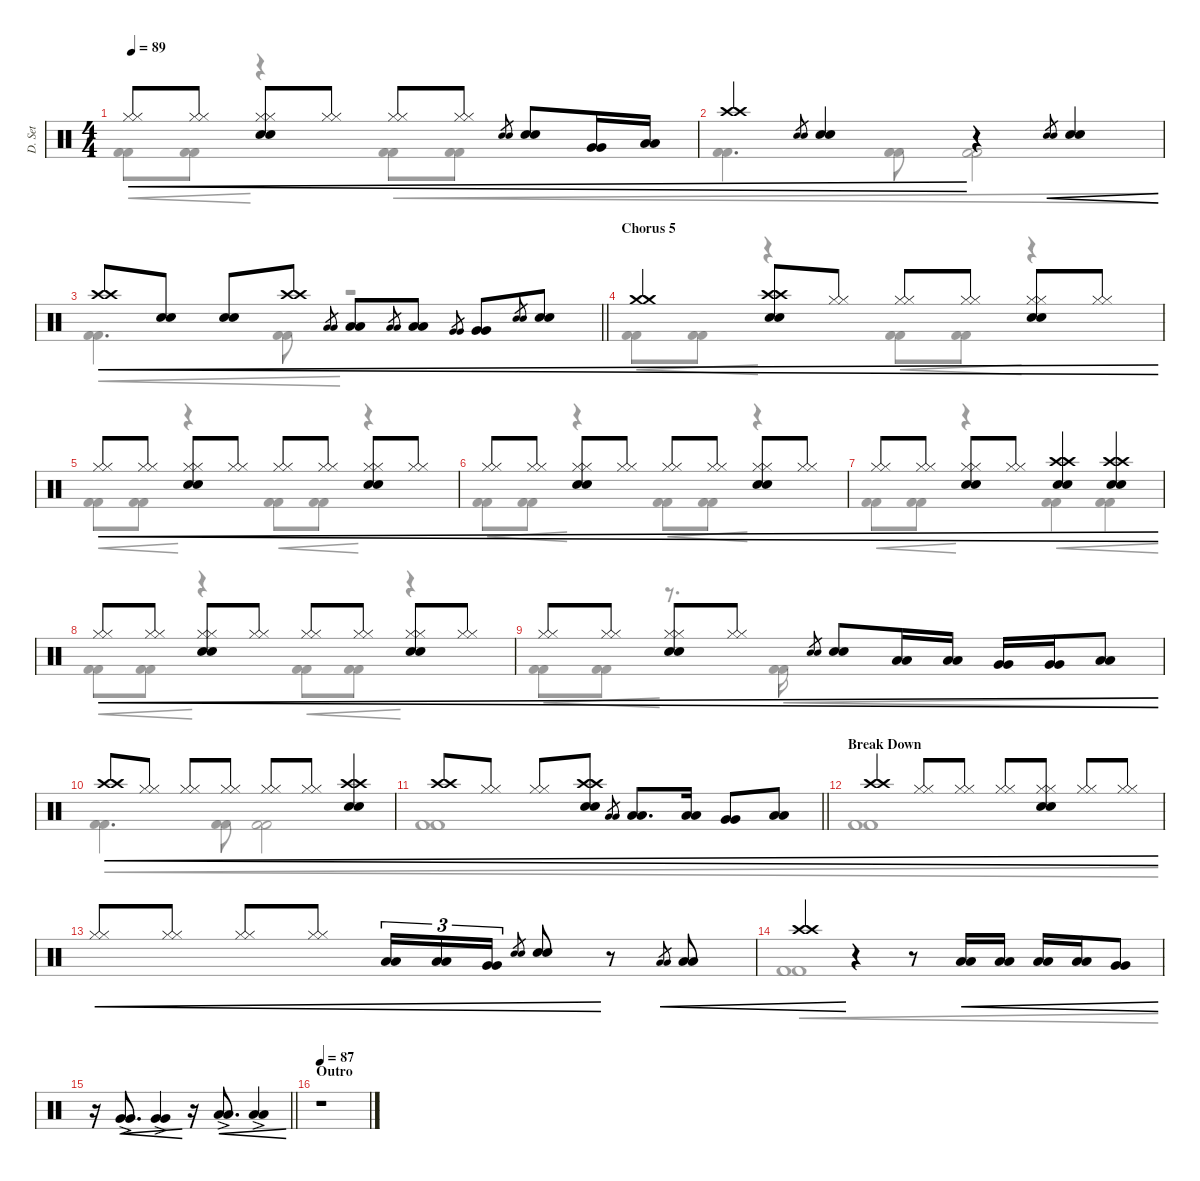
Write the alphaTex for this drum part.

\defaultSystemsLayout 4
\hideDynamics
\bracketExtendMode groupsimilarinstruments
\otherSystemsTrackNameOrientation horizontal
\track ("Drumset" "D. Set") {instrument percussion}
\staff {score}
\articulation defaults
\voice
\ts (4 4)
\tempo 89
\clef neutral
\ks c
("Hi-Hat (closed)" "Hi-Hat (closed)").8{cre dy fff beam Up} ("Hi-Hat (closed)" "Hi-Hat (closed)").8{cre beam Up} ("Electric Snare (hit)" "Electric Snare (hit)" "Hi-Hat (closed)" "Hi-Hat (closed)").8{cre beam Up} ("Hi-Hat (closed)" "Hi-Hat (closed)").8{cre beam Up} ("Hi-Hat (closed)" "Hi-Hat (closed)").8{cre beam Up} ("Hi-Hat (closed)" "Hi-Hat (closed)").8{cre beam Up} ("Electric Snare (hit)" "Electric Snare (hit)").8{gr cre beam Up} ("Electric Snare (hit)" "Electric Snare (hit)").8{cre beam Up} ("Very Low Tom (hit)" "Very Low Tom (hit)").16{cre beam Up} ("Low Tom (hit)" "Low Tom (hit)").16{cre beam Up} |
("Crash high (hit)" "Crash high (hit)").4{cre beam Up} ("Electric Snare (hit)" "Electric Snare (hit)").8{gr cre beam Up} ("Electric Snare (hit)" "Electric Snare (hit)").4{cre beam Up} r.4 ("Electric Snare (hit)" "Electric Snare (hit)").8{gr cre beam Up} ("Electric Snare (hit)" "Electric Snare (hit)").4{cre beam Up} |
\barLineRight lightlight
("Crash high (hit)" "Crash high (hit)").8{cre beam Up} ("Electric Snare (hit)" "Electric Snare (hit)").8{cre beam Up} ("Electric Snare (hit)" "Electric Snare (hit)").8{cre beam Up} ("Crash high (hit)" "Crash high (hit)").8{cre beam Up} ("Low Tom (hit)" "Low Tom (hit)").8{gr cre beam Up} ("Low Tom (hit)" "Low Tom (hit)").8{cre beam Up} ("Low Tom (hit)" "Low Tom (hit)").8{gr cre beam Up} ("Low Tom (hit)" "Low Tom (hit)").8{cre beam Up} ("Very Low Tom (hit)" "Very Low Tom (hit)").8{gr cre beam Up} ("Very Low Tom (hit)" "Very Low Tom (hit)").8{cre beam Up} ("Electric Snare (hit)" "Electric Snare (hit)").8{gr cre beam Up} ("Electric Snare (hit)" "Electric Snare (hit)").8{cre beam Up} |
\section ("" "Chorus 5")
("Crash medium (hit)" "Crash medium (hit)").4{cre beam Up} ("Electric Snare (hit)" "Electric Snare (hit)" "Crash high (hit)" "Crash high (hit)").8{cre beam Up} ("Hi-Hat (closed)" "Hi-Hat (closed)").8{cre beam Up} ("Hi-Hat (closed)" "Hi-Hat (closed)").8{cre beam Up} ("Hi-Hat (closed)" "Hi-Hat (closed)").8{cre beam Up} ("Electric Snare (hit)" "Electric Snare (hit)" "Hi-Hat (closed)" "Hi-Hat (closed)").8{cre beam Up} ("Hi-Hat (closed)" "Hi-Hat (closed)").8{cre beam Up} |
("Hi-Hat (closed)" "Hi-Hat (closed)").8{cre beam Up} ("Hi-Hat (closed)" "Hi-Hat (closed)").8{cre beam Up} ("Electric Snare (hit)" "Electric Snare (hit)" "Hi-Hat (closed)" "Hi-Hat (closed)").8{cre beam Up} ("Hi-Hat (closed)" "Hi-Hat (closed)").8{cre beam Up} ("Hi-Hat (closed)" "Hi-Hat (closed)").8{cre beam Up} ("Hi-Hat (closed)" "Hi-Hat (closed)").8{cre beam Up} ("Electric Snare (hit)" "Electric Snare (hit)" "Hi-Hat (closed)" "Hi-Hat (closed)").8{cre beam Up} ("Hi-Hat (closed)" "Hi-Hat (closed)").8{cre beam Up} |
("Hi-Hat (closed)" "Hi-Hat (closed)").8{cre beam Up} ("Hi-Hat (closed)" "Hi-Hat (closed)").8{cre beam Up} ("Electric Snare (hit)" "Electric Snare (hit)" "Hi-Hat (closed)" "Hi-Hat (closed)").8{cre beam Up} ("Hi-Hat (closed)" "Hi-Hat (closed)").8{cre beam Up} ("Hi-Hat (closed)" "Hi-Hat (closed)").8{cre beam Up} ("Hi-Hat (closed)" "Hi-Hat (closed)").8{cre beam Up} ("Electric Snare (hit)" "Electric Snare (hit)" "Hi-Hat (closed)" "Hi-Hat (closed)").8{cre beam Up} ("Hi-Hat (closed)" "Hi-Hat (closed)").8{cre beam Up} |
("Hi-Hat (closed)" "Hi-Hat (closed)").8{cre beam Up} ("Hi-Hat (closed)" "Hi-Hat (closed)").8{cre beam Up} ("Electric Snare (hit)" "Electric Snare (hit)" "Hi-Hat (closed)" "Hi-Hat (closed)").8{cre beam Up} ("Hi-Hat (closed)" "Hi-Hat (closed)").8{cre beam Up} ("Electric Snare (hit)" "Electric Snare (hit)" "Crash high (hit)" "Crash high (hit)").4{cre beam Up} ("Electric Snare (hit)" "Electric Snare (hit)" "Crash high (hit)" "Crash high (hit)").4{cre beam Up} |
("Hi-Hat (closed)" "Hi-Hat (closed)").8{cre beam Up} ("Hi-Hat (closed)" "Hi-Hat (closed)").8{cre beam Up} ("Electric Snare (hit)" "Electric Snare (hit)" "Hi-Hat (closed)" "Hi-Hat (closed)").8{cre beam Up} ("Hi-Hat (closed)" "Hi-Hat (closed)").8{cre beam Up} ("Hi-Hat (closed)" "Hi-Hat (closed)").8{cre beam Up} ("Hi-Hat (closed)" "Hi-Hat (closed)").8{cre beam Up} ("Electric Snare (hit)" "Electric Snare (hit)" "Hi-Hat (closed)" "Hi-Hat (closed)").8{cre beam Up} ("Hi-Hat (closed)" "Hi-Hat (closed)").8{cre beam Up} |
("Hi-Hat (closed)" "Hi-Hat (closed)").8{cre beam Up} ("Hi-Hat (closed)" "Hi-Hat (closed)").8{cre beam Up} ("Electric Snare (hit)" "Electric Snare (hit)" "Hi-Hat (closed)" "Hi-Hat (closed)").8{cre beam Up} ("Hi-Hat (closed)" "Hi-Hat (closed)").8{cre beam Up} ("Electric Snare (hit)" "Electric Snare (hit)").8{gr cre beam Up} ("Electric Snare (hit)" "Electric Snare (hit)").8{cre beam Up} ("Low Tom (hit)" "Low Tom (hit)").16{cre beam Up} ("Low Tom (hit)" "Low Tom (hit)").16{cre beam Up} ("Very Low Tom (hit)" "Very Low Tom (hit)").16{cre beam Up} ("Very Low Tom (hit)" "Very Low Tom (hit)").16{cre beam Up} ("Low Floor Tom (hit)" "Low Floor Tom (hit)").8{cre beam Up} |
("Crash high (hit)" "Crash high (hit)").8{cre beam Up} ("Hi-Hat (closed)" "Hi-Hat (closed)").8{cre beam Up} ("Hi-Hat (closed)" "Hi-Hat (closed)").8{cre beam Up} ("Hi-Hat (closed)" "Hi-Hat (closed)").8{cre beam Up} ("Hi-Hat (closed)" "Hi-Hat (closed)").8{cre beam Up} ("Hi-Hat (closed)" "Hi-Hat (closed)").8{cre beam Up} ("Electric Snare (hit)" "Electric Snare (hit)" "Crash high (hit)" "Crash high (hit)").4{cre beam Up} |
\barLineRight lightlight
("Crash high (hit)" "Crash high (hit)").8{cre beam Up} ("Hi-Hat (closed)" "Hi-Hat (closed)").8{cre beam Up} ("Hi-Hat (closed)" "Hi-Hat (closed)").8{cre beam Up} ("Electric Snare (hit)" "Electric Snare (hit)" "Crash high (hit)" "Crash high (hit)").8{cre beam Up} ("Low Tom (hit)" "Low Tom (hit)").8{gr cre beam Up} ("Low Tom (hit)" "Low Tom (hit)").8{d cre beam Up} ("Low Tom (hit)" "Low Tom (hit)").16{cre beam Up} ("Very Low Tom (hit)" "Very Low Tom (hit)").8{cre beam Up} ("Low Floor Tom (hit)" "Low Floor Tom (hit)").8{cre beam Up} |
\section ("" "Break Down")
("Crash high (hit)" "Crash high (hit)").4{cre beam Up} ("Hi-Hat (closed)" "Hi-Hat (closed)").8{cre beam Up} ("Hi-Hat (closed)" "Hi-Hat (closed)").8{cre beam Up} ("Hi-Hat (closed)" "Hi-Hat (closed)").8{cre beam Up} ("Electric Snare (hit)" "Electric Snare (hit)" "Hi-Hat (closed)" "Hi-Hat (closed)").8{cre beam Up} ("Hi-Hat (closed)" "Hi-Hat (closed)").8{cre beam Up} ("Hi-Hat (closed)" "Hi-Hat (closed)").8{cre beam Up} |
("Hi-Hat (closed)" "Hi-Hat (closed)").8{cre beam Up} ("Hi-Hat (closed)" "Hi-Hat (closed)").8{cre beam Up} ("Hi-Hat (closed)" "Hi-Hat (closed)").8{cre beam Up} ("Hi-Hat (closed)" "Hi-Hat (closed)").8{cre beam Up} ("Low Tom (hit)" "Low Tom (hit)").16{tu (3 2) cre beam Up} ("Low Tom (hit)" "Low Tom (hit)").16{tu (3 2) cre beam Up} ("Very Low Tom (hit)" "Very Low Tom (hit)").16{tu (3 2) cre beam Up} ("Electric Snare (hit)" "Electric Snare (hit)").8{gr cre beam Up} ("Electric Snare (hit)" "Electric Snare (hit)").8{cre beam Up} r.8 ("Low Floor Tom (hit)" "Low Floor Tom (hit)").8{gr cre beam Up} ("Low Floor Tom (hit)" "Low Floor Tom (hit)").8{cre beam Up} |
("Crash high (hit)" "Crash high (hit)").4{cre beam Up} r.4 r.8 ("Low Tom (hit)" "Low Tom (hit)").16{cre beam Up} ("Low Tom (hit)" "Low Tom (hit)").16{cre beam Up} ("Low Tom (hit)" "Low Tom (hit)").16{cre beam Up} ("Low Tom (hit)" "Low Tom (hit)").16{cre beam Up} ("Very Low Tom (hit)" "Very Low Tom (hit)").8{cre beam Up} |
\barLineRight lightlight
r.16 ("Very Low Tom (hit)"{ac} "Very Low Tom (hit)"{ac}).8{d cre beam Up} ("Very Low Tom (hit)"{ac} "Very Low Tom (hit)"{ac}).4{cre beam Up} r.16 ("Low Floor Tom (hit)"{ac} "Low Floor Tom (hit)"{ac}).8{d cre beam Up} ("Low Floor Tom (hit)"{ac} "Low Floor Tom (hit)"{ac}).4{cre beam Up} |
\section ("" "Outro")
\tempo 87
r.1
\voice
\clef neutral
\ottava regular
\simile none
\ks c
("Kick (hit) 2" "Kick (hit) 2").8{cre dy fff beam Down} ("Kick (hit) 2" "Kick (hit) 2").8{cre beam Down} r.4 ("Kick (hit) 2" "Kick (hit) 2").8{cre beam Down} ("Kick (hit) 2" "Kick (hit) 2").8{cre beam Down} |
("Kick (hit) 2" "Kick (hit) 2").4{d cre beam Down} ("Kick (hit) 2" "Kick (hit) 2").8{cre beam Down} ("Kick (hit) 2" "Kick (hit) 2").2{cre beam Down} |
\barLineRight lightlight
("Kick (hit) 2" "Kick (hit) 2").4{d cre beam Down} ("Kick (hit) 2" "Kick (hit) 2").8{cre beam Down} r.2 |
("Kick (hit) 2" "Kick (hit) 2").8{cre beam Down} ("Kick (hit) 2" "Kick (hit) 2").8{cre beam Down} r.4 ("Kick (hit) 2" "Kick (hit) 2").8{cre beam Down} ("Kick (hit) 2" "Kick (hit) 2").8{cre beam Down} r.4 |
("Kick (hit) 2" "Kick (hit) 2").8{cre beam Down} ("Kick (hit) 2" "Kick (hit) 2").8{cre beam Down} r.4 ("Kick (hit) 2" "Kick (hit) 2").8{cre beam Down} ("Kick (hit) 2" "Kick (hit) 2").8{cre beam Down} r.4 |
("Kick (hit) 2" "Kick (hit) 2").8{cre beam Down} ("Kick (hit) 2" "Kick (hit) 2").8{cre beam Down} r.4 ("Kick (hit) 2" "Kick (hit) 2").8{cre beam Down} ("Kick (hit) 2" "Kick (hit) 2").8{cre beam Down} r.4 |
("Kick (hit) 2" "Kick (hit) 2").8{cre beam Down} ("Kick (hit) 2" "Kick (hit) 2").8{cre beam Down} r.4 ("Kick (hit) 2" "Kick (hit) 2").4{cre beam Down} ("Kick (hit) 2" "Kick (hit) 2").4{cre beam Down} |
("Kick (hit) 2" "Kick (hit) 2").8{cre beam Down} ("Kick (hit) 2" "Kick (hit) 2").8{cre beam Down} r.4 ("Kick (hit) 2" "Kick (hit) 2").8{cre beam Down} ("Kick (hit) 2" "Kick (hit) 2").8{cre beam Down} r.4 |
("Kick (hit) 2" "Kick (hit) 2").8{cre beam Down} ("Kick (hit) 2" "Kick (hit) 2").8{cre beam Down} r.8{d} ("Kick (hit) 2" "Kick (hit) 2").16{cre beam Down} |
("Kick (hit) 2" "Kick (hit) 2").4{d cre beam Down} ("Kick (hit) 2" "Kick (hit) 2").8{cre beam Down} ("Kick (hit) 2" "Kick (hit) 2").2{cre beam Down} |
\barLineRight lightlight
("Kick (hit) 2" "Kick (hit) 2").1{cre} |
("Kick (hit) 2" "Kick (hit) 2").1{cre} |
|
("Kick (hit) 2" "Kick (hit) 2").1{cre} |
\barLineRight lightlight
|
